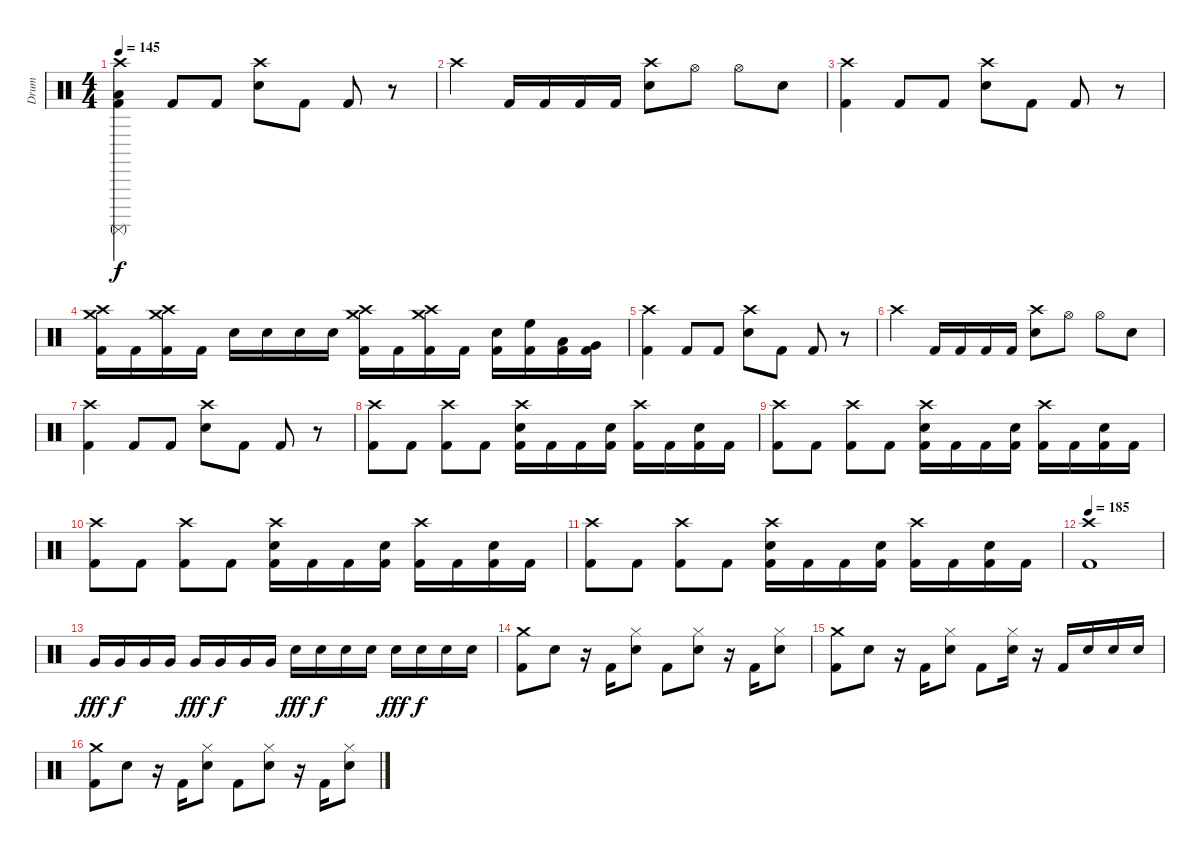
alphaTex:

\track ("Drum" "Drum") {instrument percussion}
\staff
\articulation defaults
\ts (4 4)
\tempo 145
\clef neutral
\ks c
("Crash high (hit)" "Surdo (mute)" "Low Tom (hit)" "Kick (hit) 2").4{dy f} "Kick (hit) 2".8 "Kick (hit) 2".8 ("Crash high (hit)" "Electric Snare (hit)").8 "Kick (hit) 2".8 "Kick (hit) 2".8 r.8 |
"Crash high (hit)".4 "Kick (hit) 2".16 "Kick (hit) 2".16 "Kick (hit) 2".16 "Kick (hit) 2".16 ("Crash high (hit)" "Electric Snare (hit)").8 "Hi-Hat (open)".8 "Hi-Hat (open)".8 "Electric Snare (hit)".8 |
("Crash high (hit)" "Kick (hit) 2").4 "Kick (hit) 2".8 "Kick (hit) 2".8 ("Crash high (hit)" "Electric Snare (hit)").8 "Kick (hit) 2".8 "Kick (hit) 2".8 r.8 |
("Crash high (hit)" "Crash medium (hit)" "Kick (hit) 2").16 "Kick (hit) 2".16 ("Crash high (hit)" "Crash medium (hit)" "Kick (hit) 2").16 "Kick (hit) 2".16 "Electric Snare (hit)".16 "Electric Snare (hit)".16 "Electric Snare (hit)".16 "Electric Snare (hit)".16 ("Crash high (hit)" "Crash medium (hit)" "Kick (hit) 2").16 "Kick (hit) 2".16 ("Crash high (hit)" "Crash medium (hit)" "Kick (hit) 2").16 "Kick (hit) 2".16 ("Electric Snare (hit)" "Kick (hit) 2").16 ("High Floor Tom (hit)" "Kick (hit) 2").16 ("Low Tom (hit)" "Kick (hit) 2").16 ("Very Low Tom (hit)" "Kick (hit) 2").16 |
("Crash high (hit)" "Kick (hit) 2").4 "Kick (hit) 2".8 "Kick (hit) 2".8 ("Crash high (hit)" "Electric Snare (hit)").8 "Kick (hit) 2".8 "Kick (hit) 2".8 r.8 |
"Crash high (hit)".4 "Kick (hit) 2".16 "Kick (hit) 2".16 "Kick (hit) 2".16 "Kick (hit) 2".16 ("Crash high (hit)" "Electric Snare (hit)").8 "Hi-Hat (open)".8 "Hi-Hat (open)".8 "Electric Snare (hit)".8 |
("Crash high (hit)" "Kick (hit) 2").4 "Kick (hit) 2".8 "Kick (hit) 2".8 ("Crash high (hit)" "Electric Snare (hit)").8 "Kick (hit) 2".8 "Kick (hit) 2".8 r.8 |
("Crash high (hit)" "Kick (hit) 2").8 "Kick (hit) 2".8 ("Crash high (hit)" "Kick (hit) 2").8 "Kick (hit) 2".8 ("Crash high (hit)" "Electric Snare (hit)" "Kick (hit) 2").16 "Kick (hit) 2".16 "Kick (hit) 2".16 ("Electric Snare (hit)" "Kick (hit) 2").16 ("Crash high (hit)" "Kick (hit) 2").16 "Kick (hit) 2".16 ("Electric Snare (hit)" "Kick (hit) 2").16 "Kick (hit) 2".16 |
("Crash high (hit)" "Kick (hit) 2").8 "Kick (hit) 2".8 ("Crash high (hit)" "Kick (hit) 2").8 "Kick (hit) 2".8 ("Crash high (hit)" "Electric Snare (hit)" "Kick (hit) 2").16 "Kick (hit) 2".16 "Kick (hit) 2".16 ("Electric Snare (hit)" "Kick (hit) 2").16 ("Crash high (hit)" "Kick (hit) 2").16 "Kick (hit) 2".16 ("Electric Snare (hit)" "Kick (hit) 2").16 "Kick (hit) 2".16 |
("Crash high (hit)" "Kick (hit) 2").8 "Kick (hit) 2".8 ("Crash high (hit)" "Kick (hit) 2").8 "Kick (hit) 2".8 ("Crash high (hit)" "Electric Snare (hit)" "Kick (hit) 2").16 "Kick (hit) 2".16 "Kick (hit) 2".16 ("Electric Snare (hit)" "Kick (hit) 2").16 ("Crash high (hit)" "Kick (hit) 2").16 "Kick (hit) 2".16 ("Electric Snare (hit)" "Kick (hit) 2").16 "Kick (hit) 2".16 |
("Crash high (hit)" "Kick (hit) 2").8 "Kick (hit) 2".8 ("Crash high (hit)" "Kick (hit) 2").8 "Kick (hit) 2".8 ("Crash high (hit)" "Electric Snare (hit)" "Kick (hit) 2").16 "Kick (hit) 2".16 "Kick (hit) 2".16 ("Electric Snare (hit)" "Kick (hit) 2").16 ("Crash high (hit)" "Kick (hit) 2").16 "Kick (hit) 2".16 ("Electric Snare (hit)" "Kick (hit) 2").16 "Kick (hit) 2".16 |
\tempo 200
\tempo 185
("Crash high (hit)" "Kick (hit) 2").1 |
"Very Low Tom (hit)".16{dy fff} "Very Low Tom (hit)".16{dy f} "Very Low Tom (hit)".16 "Very Low Tom (hit)".16 "Very Low Tom (hit)".16{dy fff} "Very Low Tom (hit)".16{dy f} "Very Low Tom (hit)".16 "Very Low Tom (hit)".16 "Electric Snare (hit)".16{dy fff} "Electric Snare (hit)".16{dy f} "Electric Snare (hit)".16 "Electric Snare (hit)".16 "Electric Snare (hit)".16{dy fff} "Electric Snare (hit)".16{dy f} "Electric Snare (hit)".16 "Electric Snare (hit)".16 |
("Crash medium (hit)" "Kick (hit) 2").8 "Electric Snare (hit)".8 r.16 "Kick (hit) 2".16 ("Hi-Hat (closed)" "Electric Snare (hit)").8 "Kick (hit) 2".8 ("Hi-Hat (closed)" "Electric Snare (hit)").8 r.16 "Kick (hit) 2".16 ("Hi-Hat (closed)" "Electric Snare (hit)").8 |
("Crash medium (hit)" "Kick (hit) 2").8 "Electric Snare (hit)".8 r.16 "Kick (hit) 2".16 ("Hi-Hat (closed)" "Electric Snare (hit)").8 "Kick (hit) 2".8 ("Hi-Hat (closed)" "Electric Snare (hit)").16 r.16 "Kick (hit) 2".16 "Electric Snare (hit)".16 "Electric Snare (hit)".16 "Electric Snare (hit)".16 |
("Crash medium (hit)" "Kick (hit) 2").8 "Electric Snare (hit)".8 r.16 "Kick (hit) 2".16 ("Hi-Hat (closed)" "Electric Snare (hit)").8 "Kick (hit) 2".8 ("Hi-Hat (closed)" "Electric Snare (hit)").8 r.16 "Kick (hit) 2".16 ("Hi-Hat (closed)" "Electric Snare (hit)").8
